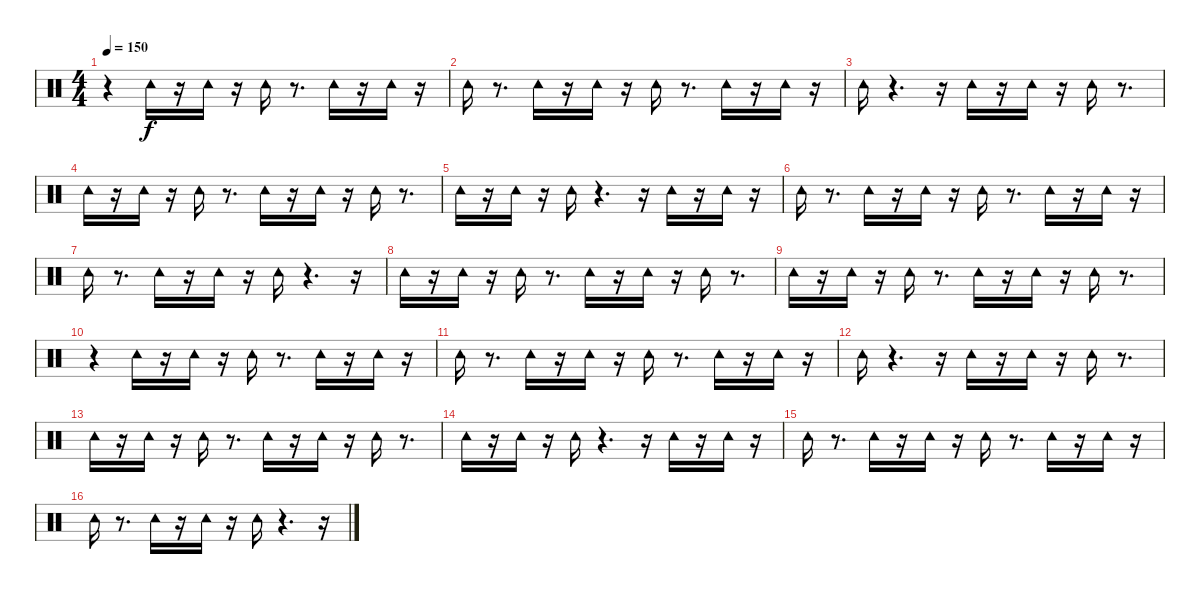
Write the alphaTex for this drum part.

\track "" {instrument percussion}
\staff {score}
\articulation defaults
\ts (4 4)
\tempo 150
\clef neutral
\ks c
r.4{dy f} "Tambourine (hit)".16 r.16 "Tambourine (hit)".16 r.16 "Tambourine (hit)".16 r.8{d} "Tambourine (hit)".16 r.16 "Tambourine (hit)".16 r.16 |
"Tambourine (hit)".16 r.8{d} "Tambourine (hit)".16 r.16 "Tambourine (hit)".16 r.16 "Tambourine (hit)".16 r.8{d} "Tambourine (hit)".16 r.16 "Tambourine (hit)".16 r.16 |
"Tambourine (hit)".16 r.4{d} r.16 "Tambourine (hit)".16 r.16 "Tambourine (hit)".16 r.16 "Tambourine (hit)".16 r.8{d} |
"Tambourine (hit)".16 r.16 "Tambourine (hit)".16 r.16 "Tambourine (hit)".16 r.8{d} "Tambourine (hit)".16 r.16 "Tambourine (hit)".16 r.16 "Tambourine (hit)".16 r.8{d} |
"Tambourine (hit)".16 r.16 "Tambourine (hit)".16 r.16 "Tambourine (hit)".16 r.4{d} r.16 "Tambourine (hit)".16 r.16 "Tambourine (hit)".16 r.16 |
"Tambourine (hit)".16 r.8{d} "Tambourine (hit)".16 r.16 "Tambourine (hit)".16 r.16 "Tambourine (hit)".16 r.8{d} "Tambourine (hit)".16 r.16 "Tambourine (hit)".16 r.16 |
"Tambourine (hit)".16 r.8{d} "Tambourine (hit)".16 r.16 "Tambourine (hit)".16 r.16 "Tambourine (hit)".16 r.4{d} r.16 |
"Tambourine (hit)".16 r.16 "Tambourine (hit)".16 r.16 "Tambourine (hit)".16 r.8{d} "Tambourine (hit)".16 r.16 "Tambourine (hit)".16 r.16 "Tambourine (hit)".16 r.8{d} |
"Tambourine (hit)".16 r.16 "Tambourine (hit)".16 r.16 "Tambourine (hit)".16 r.8{d} "Tambourine (hit)".16 r.16 "Tambourine (hit)".16 r.16 "Tambourine (hit)".16 r.8{d} |
r.4 "Tambourine (hit)".16 r.16 "Tambourine (hit)".16 r.16 "Tambourine (hit)".16 r.8{d} "Tambourine (hit)".16 r.16 "Tambourine (hit)".16 r.16 |
"Tambourine (hit)".16 r.8{d} "Tambourine (hit)".16 r.16 "Tambourine (hit)".16 r.16 "Tambourine (hit)".16 r.8{d} "Tambourine (hit)".16 r.16 "Tambourine (hit)".16 r.16 |
"Tambourine (hit)".16 r.4{d} r.16 "Tambourine (hit)".16 r.16 "Tambourine (hit)".16 r.16 "Tambourine (hit)".16 r.8{d} |
"Tambourine (hit)".16 r.16 "Tambourine (hit)".16 r.16 "Tambourine (hit)".16 r.8{d} "Tambourine (hit)".16 r.16 "Tambourine (hit)".16 r.16 "Tambourine (hit)".16 r.8{d} |
"Tambourine (hit)".16 r.16 "Tambourine (hit)".16 r.16 "Tambourine (hit)".16 r.4{d} r.16 "Tambourine (hit)".16 r.16 "Tambourine (hit)".16 r.16 |
"Tambourine (hit)".16 r.8{d} "Tambourine (hit)".16 r.16 "Tambourine (hit)".16 r.16 "Tambourine (hit)".16 r.8{d} "Tambourine (hit)".16 r.16 "Tambourine (hit)".16 r.16 |
"Tambourine (hit)".16 r.8{d} "Tambourine (hit)".16 r.16 "Tambourine (hit)".16 r.16 "Tambourine (hit)".16 r.4{d} r.16
